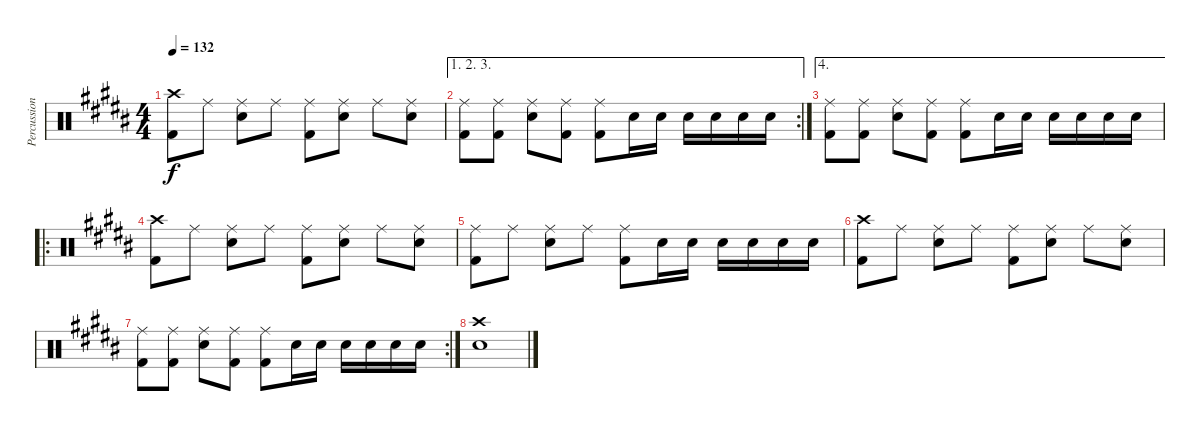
\track ("Percussions (Will Champion)" "Percussion") {instrument percussion}
\staff {score}
\articulation defaults
\ts (4 4)
\tempo 132
\clef neutral
\ks b
("Crash high (hit)" "Kick (hit) 2").8{dy f} "Ride (middle)".8 ("Snare (hit) 2" "Ride (middle)").8 "Ride (middle)".8 ("Kick (hit) 2" "Ride (middle)").8 ("Snare (hit) 2" "Ride (middle)").8 "Ride (middle)".8 ("Snare (hit) 2" "Ride (middle)").8 |
\ae (1 2 3)
\rc 2
("Kick (hit) 2" "Ride (middle)").8 ("Kick (hit) 2" "Ride (middle)").8 ("Snare (hit) 2" "Ride (middle)").8 ("Kick (hit) 2" "Ride (middle)").8 ("Kick (hit) 2" "Ride (middle)").8 "Snare (hit) 2".16 "Snare (hit) 2".16 "Snare (hit) 2".16 "Snare (hit) 2".16 "Snare (hit) 2".16 "Snare (hit) 2".16 |
\ae 4
("Kick (hit) 2" "Ride (middle)").8 ("Kick (hit) 2" "Ride (middle)").8 ("Snare (hit) 2" "Ride (middle)").8 ("Kick (hit) 2" "Ride (middle)").8 ("Kick (hit) 2" "Ride (middle)").8 "Snare (hit) 2".16 "Snare (hit) 2".16 "Snare (hit) 2".16 "Snare (hit) 2".16 "Snare (hit) 2".16 "Snare (hit) 2".16 |
\ro
("Crash high (hit)" "Kick (hit) 2").8 "Ride (middle)".8 ("Snare (hit) 2" "Ride (middle)").8 "Ride (middle)".8 ("Kick (hit) 2" "Ride (middle)").8 ("Snare (hit) 2" "Ride (middle)").8 "Ride (middle)".8 ("Snare (hit) 2" "Ride (middle)").8 |
("Kick (hit) 2" "Ride (middle)").8 "Ride (middle)".8 ("Snare (hit) 2" "Ride (middle)").8 "Ride (middle)".8 ("Kick (hit) 2" "Ride (middle)").8 "Snare (hit) 2".16 "Snare (hit) 2".16 "Snare (hit) 2".16 "Snare (hit) 2".16 "Snare (hit) 2".16 "Snare (hit) 2".16 |
("Crash high (hit)" "Kick (hit) 2").8 "Ride (middle)".8 ("Snare (hit) 2" "Ride (middle)").8 "Ride (middle)".8 ("Kick (hit) 2" "Ride (middle)").8 ("Snare (hit) 2" "Ride (middle)").8 "Ride (middle)".8 ("Snare (hit) 2" "Ride (middle)").8 |
\rc 2
("Kick (hit) 2" "Ride (middle)").8 ("Kick (hit) 2" "Ride (middle)").8 ("Snare (hit) 2" "Ride (middle)").8 ("Kick (hit) 2" "Ride (middle)").8 ("Kick (hit) 2" "Ride (middle)").8 "Snare (hit) 2".16 "Snare (hit) 2".16 "Snare (hit) 2".16 "Snare (hit) 2".16 "Snare (hit) 2".16 "Snare (hit) 2".16 |
("Crash high (hit)" "Snare (hit) 2").1
